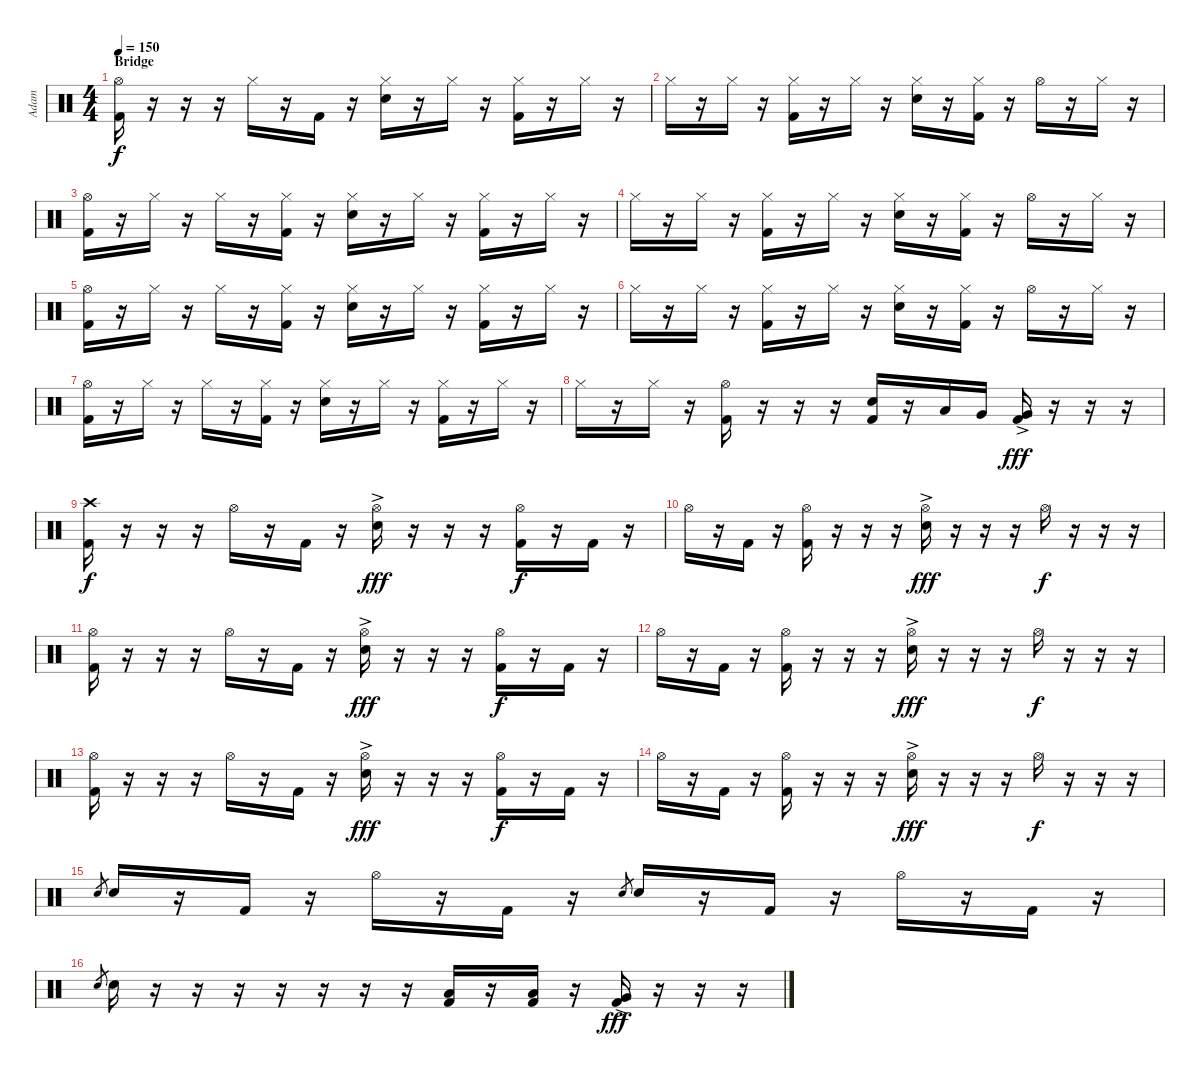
\track ("Adam" "Adam") {instrument percussion}
\staff {score}
\articulation defaults
\ts (4 4)
\section ("" "Bridge")
\tempo 150
\clef neutral
\ks c
("Hi-Hat (open)" "Kick (hit) 2").16{dy f} r.16 r.16 r.16 "Hi-Hat (closed)".16 r.16 "Kick (hit) 2".16 r.16 ("Hi-Hat (closed)" "Electric Snare (hit)").16 r.16 "Hi-Hat (closed)".16 r.16 ("Hi-Hat (closed)" "Kick (hit) 2").16 r.16 "Hi-Hat (closed)".16 r.16 |
"Hi-Hat (closed)".16 r.16 "Hi-Hat (closed)".16 r.16 ("Hi-Hat (closed)" "Kick (hit) 2").16 r.16 "Hi-Hat (closed)".16 r.16 ("Hi-Hat (closed)" "Electric Snare (hit)").16 r.16 ("Hi-Hat (closed)" "Kick (hit) 2").16 r.16 "Hi-Hat (open)".16 r.16 "Hi-Hat (closed)".16 r.16 |
("Hi-Hat (open)" "Kick (hit) 2").16 r.16 "Hi-Hat (closed)".16 r.16 "Hi-Hat (closed)".16 r.16 ("Hi-Hat (closed)" "Kick (hit) 2").16 r.16 ("Hi-Hat (closed)" "Electric Snare (hit)").16 r.16 "Hi-Hat (closed)".16 r.16 ("Hi-Hat (closed)" "Kick (hit) 2").16 r.16 "Hi-Hat (closed)".16 r.16 |
"Hi-Hat (closed)".16 r.16 "Hi-Hat (closed)".16 r.16 ("Hi-Hat (closed)" "Kick (hit) 2").16 r.16 "Hi-Hat (closed)".16 r.16 ("Hi-Hat (closed)" "Electric Snare (hit)").16 r.16 ("Hi-Hat (closed)" "Kick (hit) 2").16 r.16 "Hi-Hat (open)".16 r.16 "Hi-Hat (closed)".16 r.16 |
("Hi-Hat (open)" "Kick (hit) 2").16 r.16 "Hi-Hat (closed)".16 r.16 "Hi-Hat (closed)".16 r.16 ("Hi-Hat (closed)" "Kick (hit) 2").16 r.16 ("Hi-Hat (closed)" "Electric Snare (hit)").16 r.16 "Hi-Hat (closed)".16 r.16 ("Hi-Hat (closed)" "Kick (hit) 2").16 r.16 "Hi-Hat (closed)".16 r.16 |
"Hi-Hat (closed)".16 r.16 "Hi-Hat (closed)".16 r.16 ("Hi-Hat (closed)" "Kick (hit) 2").16 r.16 "Hi-Hat (closed)".16 r.16 ("Hi-Hat (closed)" "Electric Snare (hit)").16 r.16 ("Hi-Hat (closed)" "Kick (hit) 2").16 r.16 "Hi-Hat (open)".16 r.16 "Hi-Hat (closed)".16 r.16 |
("Hi-Hat (open)" "Kick (hit) 2").16 r.16 "Hi-Hat (closed)".16 r.16 "Hi-Hat (closed)".16 r.16 ("Hi-Hat (closed)" "Kick (hit) 2").16 r.16 ("Hi-Hat (closed)" "Electric Snare (hit)").16 r.16 "Hi-Hat (closed)".16 r.16 ("Hi-Hat (closed)" "Kick (hit) 2").16 r.16 "Hi-Hat (closed)".16 r.16 |
"Hi-Hat (closed)".16 r.16 "Hi-Hat (closed)".16 r.16 ("Hi-Hat (open)" "Kick (hit) 2").16 r.16 r.16 r.16 ("Electric Snare (hit)" "Kick (hit) 2").16 r.16 "Low Tom (hit)".16 "Very Low Tom (hit)".16 ("Very Low Tom (hit)"{ac} "Kick (hit) 2").16{dy fff} r.16 r.16 r.16 |
("Crash high (hit)" "Kick (hit) 2").16{dy f} r.16 r.16 r.16 "Hi-Hat (open)".16 r.16 "Kick (hit) 2".16 r.16 ("Hi-Hat (open)" "Electric Snare (hit)"{ac}).16{dy fff} r.16 r.16 r.16 ("Hi-Hat (open)" "Kick (hit) 2").16{dy f} r.16 "Kick (hit) 2".16 r.16 |
"Hi-Hat (open)".16 r.16 "Kick (hit) 2".16 r.16 ("Hi-Hat (open)" "Kick (hit) 2").16 r.16 r.16 r.16 ("Hi-Hat (open)" "Electric Snare (hit)"{ac}).16{dy fff} r.16 r.16 r.16 "Hi-Hat (open)".16{dy f} r.16 r.16 r.16 |
("Hi-Hat (open)" "Kick (hit) 2").16 r.16 r.16 r.16 "Hi-Hat (open)".16 r.16 "Kick (hit) 2".16 r.16 ("Hi-Hat (open)" "Electric Snare (hit)"{ac}).16{dy fff} r.16 r.16 r.16 ("Hi-Hat (open)" "Kick (hit) 2").16{dy f} r.16 "Kick (hit) 2".16 r.16 |
"Hi-Hat (open)".16 r.16 "Kick (hit) 2".16 r.16 ("Hi-Hat (open)" "Kick (hit) 2").16 r.16 r.16 r.16 ("Hi-Hat (open)" "Electric Snare (hit)"{ac}).16{dy fff} r.16 r.16 r.16 "Hi-Hat (open)".16{dy f} r.16 r.16 r.16 |
("Hi-Hat (open)" "Kick (hit) 2").16 r.16 r.16 r.16 "Hi-Hat (open)".16 r.16 "Kick (hit) 2".16 r.16 ("Hi-Hat (open)" "Electric Snare (hit)"{ac}).16{dy fff} r.16 r.16 r.16 ("Hi-Hat (open)" "Kick (hit) 2").16{dy f} r.16 "Kick (hit) 2".16 r.16 |
"Hi-Hat (open)".16 r.16 "Kick (hit) 2".16 r.16 ("Hi-Hat (open)" "Kick (hit) 2").16 r.16 r.16 r.16 ("Hi-Hat (open)" "Electric Snare (hit)"{ac}).16{dy fff} r.16 r.16 r.16 "Hi-Hat (open)".16{dy f} r.16 r.16 r.16 |
"Electric Snare (hit)".8{gr} "Electric Snare (hit)".16 r.16 "Kick (hit) 2".16 r.16 "Hi-Hat (open)".16 r.16 "Kick (hit) 2".16 r.16 "Electric Snare (hit)".8{gr} "Electric Snare (hit)".16 r.16 "Kick (hit) 2".16 r.16 "Hi-Hat (open)".16 r.16 "Kick (hit) 2".16 r.16 |
"Electric Snare (hit)".8{gr} "Electric Snare (hit)".16 r.16 r.16 r.16 r.16 r.16 r.16 r.16 ("Low Tom (hit)" "Kick (hit) 2").16 r.16 ("Low Tom (hit)" "Kick (hit) 2").16 r.16 ("Very Low Tom (hit)"{ac} "Kick (hit) 2").16{dy fff} r.16 r.16 r.16
